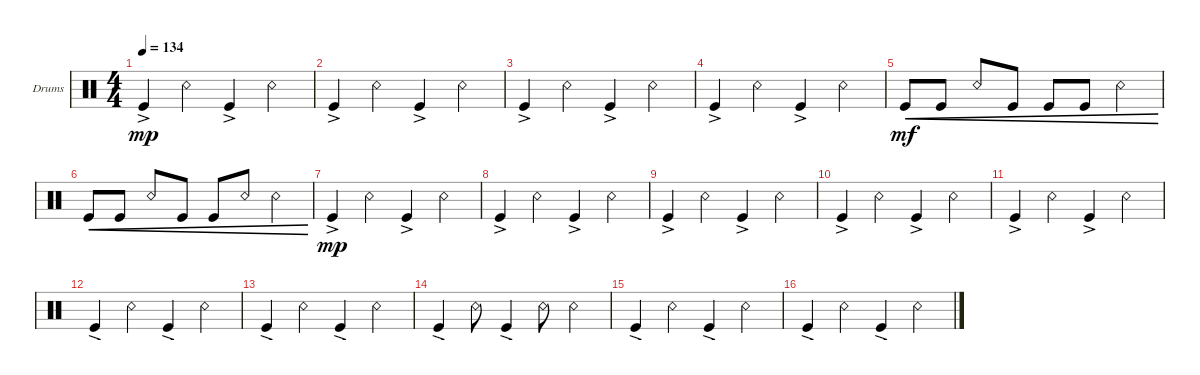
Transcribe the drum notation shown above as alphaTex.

\defaultSystemsLayout 4
\bracketExtendMode groupsimilarinstruments
\firstSystemTrackNameOrientation horizontal
\otherSystemsTrackNameOrientation horizontal
\track ("Drumkit" "Drums") {instrument percussion}
\staff {score}
\articulation defaults
\ts (4 4)
\tempo 134
\clef neutral
\ks c "Kick (hit)"{ac}.4{dy mp} "Snare (rim shot)".4 "Kick (hit)"{ac}.4 "Snare (rim shot)".4
|
"Kick (hit)"{ac}.4 "Snare (rim shot)".4 "Kick (hit)"{ac}.4 "Snare (rim shot)".4 |
"Kick (hit)"{ac}.4 "Snare (rim shot)".4 "Kick (hit)"{ac}.4 "Snare (rim shot)".4 |
"Kick (hit)"{ac}.4 "Snare (rim shot)".4 "Kick (hit)"{ac}.4 "Snare (rim shot)".4 |
"Kick (hit)".8{cre dy mf} "Kick (hit)".8{cre} "Snare (rim shot)".8{cre} "Kick (hit)".8{cre} "Kick (hit)".8{cre} "Kick (hit)".8{cre} "Snare (rim shot)".4{cre} |
"Kick (hit)".8{cre} "Kick (hit)".8{cre} "Snare (rim shot)".8{cre} "Kick (hit)".8{cre} "Kick (hit)".8{cre} "Snare (rim shot)".8{cre} "Snare (rim shot)".4{cre} |
"Kick (hit)"{ac}.4{dy mp} "Snare (rim shot)".4 "Kick (hit)"{ac}.4 "Snare (rim shot)".4 |
"Kick (hit)"{ac}.4 "Snare (rim shot)".4 "Kick (hit)"{ac}.4 "Snare (rim shot)".4 |
"Kick (hit)"{ac}.4 "Snare (rim shot)".4 "Kick (hit)"{ac}.4 "Snare (rim shot)".4 |
"Kick (hit)"{ac}.4 "Snare (rim shot)".4 "Kick (hit)"{ac}.4 "Snare (rim shot)".4 |
"Kick (hit)"{ac}.4 "Snare (rim shot)".4 "Kick (hit)"{ac}.4 "Snare (rim shot)".4 |
"Kick (hit)"{ac}.4 "Snare (rim shot)".4 "Kick (hit)"{ac}.4 "Snare (rim shot)".4 |
"Kick (hit)"{ac}.4 "Snare (rim shot)".4 "Kick (hit)"{ac}.4 "Snare (rim shot)".4 |
"Kick (hit)"{ac}.4 "Snare (rim shot)".8 "Kick (hit)"{ac}.4 "Snare (rim shot)".8 "Snare (rim shot)".4 |
"Kick (hit)"{ac}.4 "Snare (rim shot)".4 "Kick (hit)"{ac}.4 "Snare (rim shot)".4 |
"Kick (hit)"{ac}.4 "Snare (rim shot)".4 "Kick (hit)"{ac}.4 "Snare (rim shot)".4
